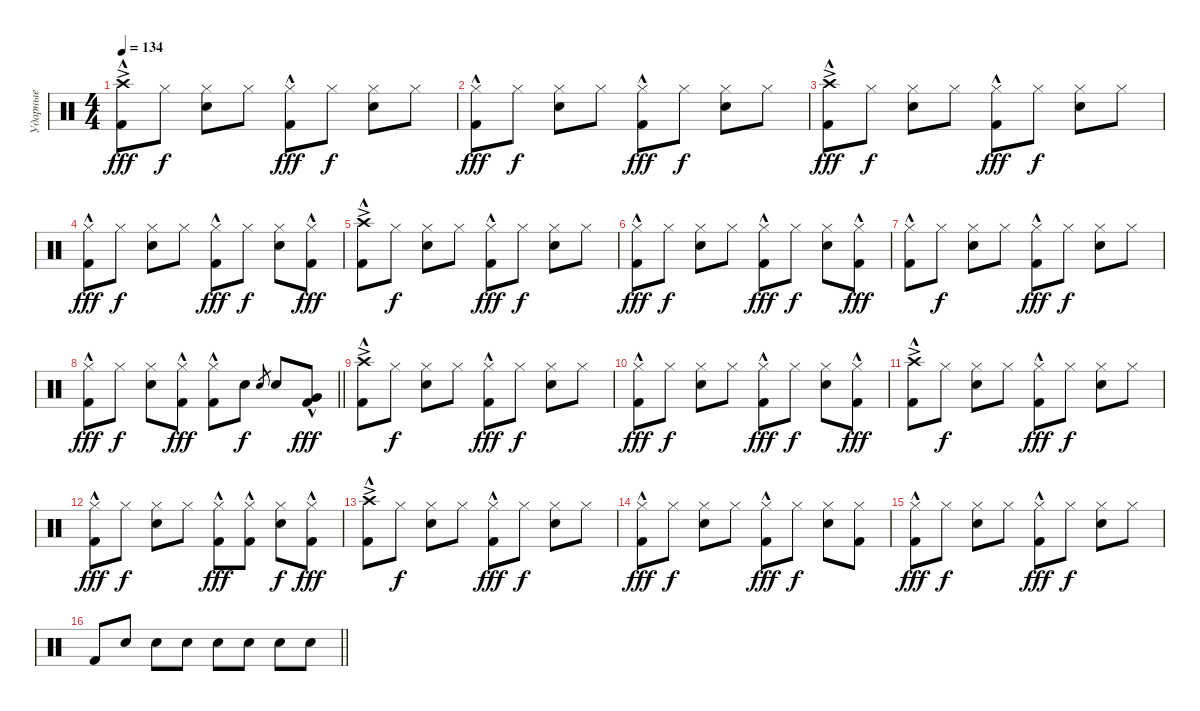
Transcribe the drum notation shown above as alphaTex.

\track ("Ударные" "Ударные") {instrument percussion}
\staff {score}
\articulation defaults
\ts (4 4)
\tempo 134
\clef neutral
\ks c
("Crash high (hit)"{ac} "Kick (hit) 2"{hac}).8{dy fff} "Hi-Hat (closed)".8{dy f} ("Hi-Hat (closed)" "Snare (hit) 2").8 "Hi-Hat (closed)".8 ("Hi-Hat (closed)" "Kick (hit) 2"{hac}).8{dy fff} "Hi-Hat (closed)".8{dy f} ("Hi-Hat (closed)" "Snare (hit) 2").8 "Hi-Hat (closed)".8 |
("Hi-Hat (closed)" "Kick (hit) 2"{hac}).8{dy fff} "Hi-Hat (closed)".8{dy f} ("Hi-Hat (closed)" "Snare (hit) 2").8 "Hi-Hat (closed)".8 ("Hi-Hat (closed)" "Kick (hit) 2"{hac}).8{dy fff} "Hi-Hat (closed)".8{dy f} ("Hi-Hat (closed)" "Snare (hit) 2").8 "Hi-Hat (closed)".8 |
("Crash high (hit)"{ac} "Kick (hit) 2"{hac}).8{dy fff} "Hi-Hat (closed)".8{dy f} ("Hi-Hat (closed)" "Snare (hit) 2").8 "Hi-Hat (closed)".8 ("Hi-Hat (closed)" "Kick (hit) 2"{hac}).8{dy fff} "Hi-Hat (closed)".8{dy f} ("Hi-Hat (closed)" "Snare (hit) 2").8 "Hi-Hat (closed)".8 |
("Hi-Hat (closed)" "Kick (hit) 2"{hac}).8{dy fff} "Hi-Hat (closed)".8{dy f} ("Hi-Hat (closed)" "Snare (hit) 2").8 "Hi-Hat (closed)".8 ("Hi-Hat (closed)" "Kick (hit) 2"{hac}).8{dy fff} "Hi-Hat (closed)".8{dy f} ("Hi-Hat (closed)" "Snare (hit) 2").8 ("Hi-Hat (closed)" "Kick (hit) 2"{hac}).8{dy fff} |
("Crash high (hit)"{ac} "Kick (hit) 2"{hac}).8 "Hi-Hat (closed)".8{dy f} ("Hi-Hat (closed)" "Snare (hit) 2").8 "Hi-Hat (closed)".8 ("Hi-Hat (closed)" "Kick (hit) 2"{hac}).8{dy fff} "Hi-Hat (closed)".8{dy f} ("Hi-Hat (closed)" "Snare (hit) 2").8 "Hi-Hat (closed)".8 |
("Hi-Hat (closed)" "Kick (hit) 2"{hac}).8{dy fff} "Hi-Hat (closed)".8{dy f} ("Hi-Hat (closed)" "Snare (hit) 2").8 "Hi-Hat (closed)".8 ("Hi-Hat (closed)" "Kick (hit) 2"{hac}).8{dy fff} "Hi-Hat (closed)".8{dy f} ("Hi-Hat (closed)" "Snare (hit) 2").8 ("Hi-Hat (closed)" "Kick (hit) 2"{hac}).8{dy fff} |
("Hi-Hat (closed)" "Kick (hit) 2"{hac}).8 "Hi-Hat (closed)".8{dy f} ("Hi-Hat (closed)" "Snare (hit) 2").8 "Hi-Hat (closed)".8 ("Hi-Hat (closed)" "Kick (hit) 2"{hac}).8{dy fff} "Hi-Hat (closed)".8{dy f} ("Hi-Hat (closed)" "Snare (hit) 2").8 "Hi-Hat (closed)".8 |
\barLineRight lightlight
("Hi-Hat (closed)" "Kick (hit) 2"{hac}).8{dy fff} "Hi-Hat (closed)".8{dy f} ("Hi-Hat (closed)" "Snare (hit) 2").8 ("Hi-Hat (closed)" "Kick (hit) 2"{hac}).8{dy fff} ("Hi-Hat (closed)" "Kick (hit) 2"{hac}).8 "Snare (hit) 2".8{dy f} "Snare (hit) 2".8{gr} "Snare (hit) 2".8 ("Very Low Tom (hit)" "Kick (hit) 2"{hac}).8{dy fff} |
("Crash high (hit)"{ac} "Kick (hit) 2"{hac}).8 "Hi-Hat (closed)".8{dy f} ("Hi-Hat (closed)" "Snare (hit) 2").8 "Hi-Hat (closed)".8 ("Hi-Hat (closed)" "Kick (hit) 2"{hac}).8{dy fff} "Hi-Hat (closed)".8{dy f} ("Hi-Hat (closed)" "Snare (hit) 2").8 "Hi-Hat (closed)".8 |
("Hi-Hat (closed)" "Kick (hit) 2"{hac}).8{dy fff} "Hi-Hat (closed)".8{dy f} ("Hi-Hat (closed)" "Snare (hit) 2").8 "Hi-Hat (closed)".8 ("Hi-Hat (closed)" "Kick (hit) 2"{hac}).8{dy fff} "Hi-Hat (closed)".8{dy f} ("Hi-Hat (closed)" "Snare (hit) 2").8 ("Hi-Hat (closed)" "Kick (hit) 2"{hac}).8{dy fff} |
("Crash high (hit)"{ac} "Kick (hit) 2"{hac}).8 "Hi-Hat (closed)".8{dy f} ("Hi-Hat (closed)" "Snare (hit) 2").8 "Hi-Hat (closed)".8 ("Hi-Hat (closed)" "Kick (hit) 2"{hac}).8{dy fff} "Hi-Hat (closed)".8{dy f} ("Hi-Hat (closed)" "Snare (hit) 2").8 "Hi-Hat (closed)".8 |
("Hi-Hat (closed)" "Kick (hit) 2"{hac}).8{dy fff} "Hi-Hat (closed)".8{dy f} ("Hi-Hat (closed)" "Snare (hit) 2").8 "Hi-Hat (closed)".8 ("Hi-Hat (closed)" "Kick (hit) 2"{hac}).8{dy fff} ("Hi-Hat (closed)" "Kick (hit) 2"{hac}).8 ("Hi-Hat (closed)" "Snare (hit) 2").8{dy f} ("Hi-Hat (closed)" "Kick (hit) 2"{hac}).8{dy fff} |
("Crash high (hit)"{ac} "Kick (hit) 2"{hac}).8 "Hi-Hat (closed)".8{dy f} ("Hi-Hat (closed)" "Snare (hit) 2").8 "Hi-Hat (closed)".8 ("Hi-Hat (closed)" "Kick (hit) 2"{hac}).8{dy fff} "Hi-Hat (closed)".8{dy f} ("Hi-Hat (closed)" "Snare (hit) 2").8 "Hi-Hat (closed)".8 |
("Hi-Hat (closed)" "Kick (hit) 2"{hac}).8{dy fff} "Hi-Hat (closed)".8{dy f} ("Hi-Hat (closed)" "Snare (hit) 2").8 "Hi-Hat (closed)".8 ("Hi-Hat (closed)" "Kick (hit) 2"{hac}).8{dy fff} "Hi-Hat (closed)".8{dy f} ("Hi-Hat (closed)" "Snare (hit) 2").8 ("Hi-Hat (closed)" "Kick (hit) 2").8 |
("Hi-Hat (closed)" "Kick (hit) 2"{hac}).8{dy fff} "Hi-Hat (closed)".8{dy f} ("Hi-Hat (closed)" "Snare (hit) 2").8 "Hi-Hat (closed)".8 ("Hi-Hat (closed)" "Kick (hit) 2"{hac}).8{dy fff} "Hi-Hat (closed)".8{dy f} ("Hi-Hat (closed)" "Snare (hit) 2").8 "Hi-Hat (closed)".8 |
\barLineRight lightlight "Kick (hit) 2".8 "Snare (hit) 2".8 "Snare (hit) 2".8 "Snare (hit) 2".8 "Snare (hit) 2".8 "Snare (hit) 2".8 "Snare (hit) 2".8 "Snare (hit) 2".8
